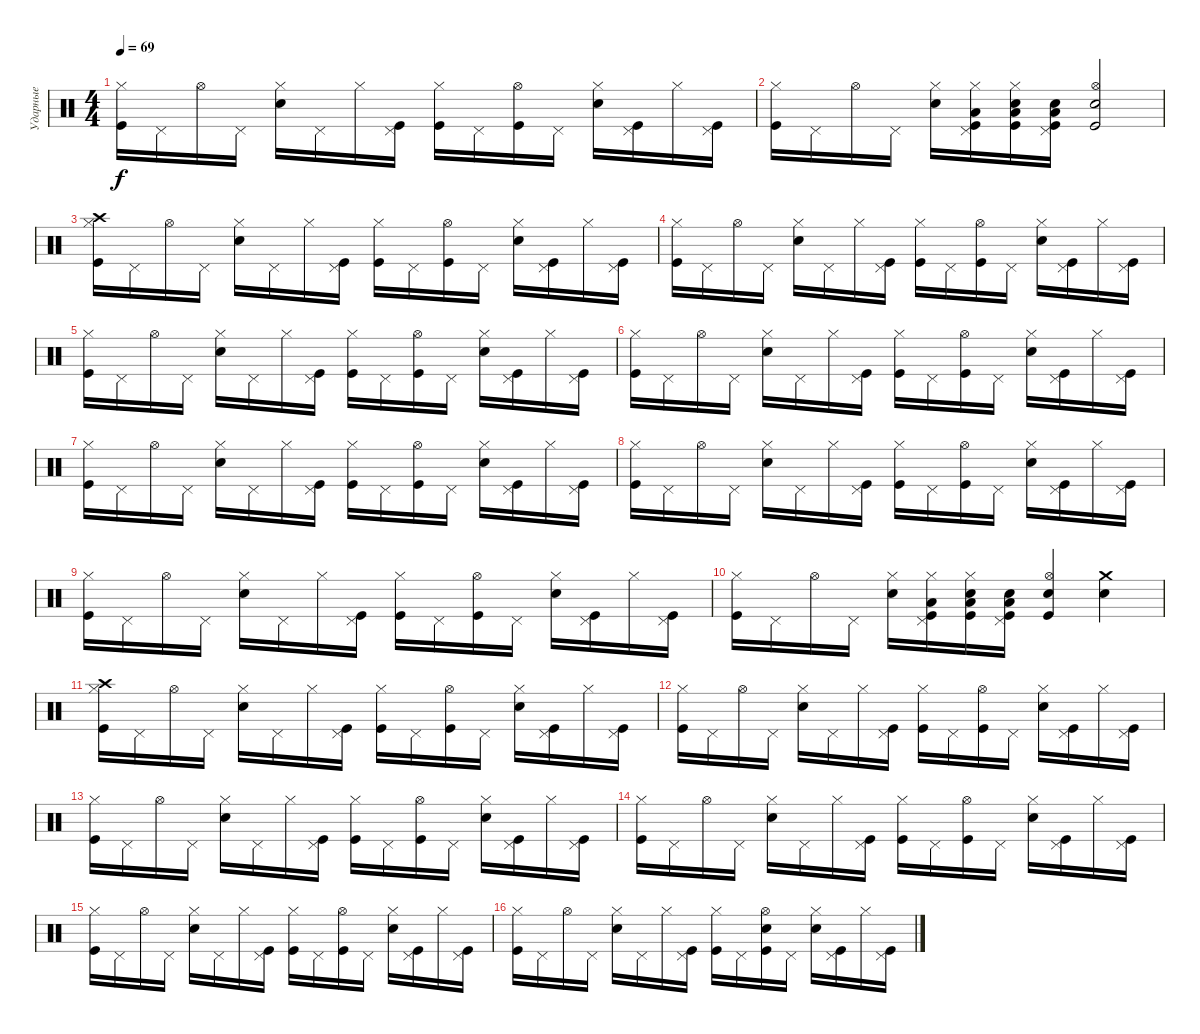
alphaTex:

\track ("Ударные" "Ударные") {instrument percussion}
\staff {score}
\articulation defaults
\ts (4 4)
\tempo 69
\clef neutral
\ks c
("Kick (hit)" "Hi-Hat (closed)").16{dy f} "Pedal Hi-Hat (hit)".16 "Hi-Hat (open)".16 "Pedal Hi-Hat (hit)".16 ("Snare (hit) 2" "Hi-Hat (closed)").16 "Pedal Hi-Hat (hit)".16 "Hi-Hat (closed)".16 ("Pedal Hi-Hat (hit)" "Kick (hit)").16 ("Kick (hit)" "Hi-Hat (closed)").16 "Pedal Hi-Hat (hit)".16 ("Kick (hit)" "Hi-Hat (open)").16 "Pedal Hi-Hat (hit)".16 ("Snare (hit) 2" "Hi-Hat (closed)").16 ("Pedal Hi-Hat (hit)" "Kick (hit)").16 "Hi-Hat (closed)".16 ("Pedal Hi-Hat (hit)" "Kick (hit)").16 |
("Kick (hit)" "Hi-Hat (closed)").16 "Pedal Hi-Hat (hit)".16 "Hi-Hat (open)".16 "Pedal Hi-Hat (hit)".16 ("Hi-Hat (closed)" "Snare (hit) 2").16 ("Hi-Hat (closed)" "Kick (hit)" "Pedal Hi-Hat (hit)" "Low Floor Tom (hit)").16 ("Hi-Hat (closed)" "Snare (hit) 2" "Low Floor Tom (hit)" "Kick (hit)").16 ("Pedal Hi-Hat (hit)" "Kick (hit)" "Snare (hit) 2" "Low Floor Tom (hit)").16 ("Hi-Hat (open)" "Snare (hit) 2" "Kick (hit)").2 |
("Kick (hit)" "Hi-Hat (closed)" "Crash high (hit)").16 "Pedal Hi-Hat (hit)".16 "Hi-Hat (open)".16 "Pedal Hi-Hat (hit)".16 ("Snare (hit) 2" "Hi-Hat (closed)").16 "Pedal Hi-Hat (hit)".16 "Hi-Hat (closed)".16 ("Pedal Hi-Hat (hit)" "Kick (hit)").16 ("Kick (hit)" "Hi-Hat (closed)").16 "Pedal Hi-Hat (hit)".16 ("Kick (hit)" "Hi-Hat (open)").16 "Pedal Hi-Hat (hit)".16 ("Snare (hit) 2" "Hi-Hat (closed)").16 ("Pedal Hi-Hat (hit)" "Kick (hit)").16 "Hi-Hat (closed)".16 ("Pedal Hi-Hat (hit)" "Kick (hit)").16 |
("Kick (hit)" "Hi-Hat (closed)").16 "Pedal Hi-Hat (hit)".16 "Hi-Hat (open)".16 "Pedal Hi-Hat (hit)".16 ("Snare (hit) 2" "Hi-Hat (closed)").16 "Pedal Hi-Hat (hit)".16 "Hi-Hat (closed)".16 ("Pedal Hi-Hat (hit)" "Kick (hit)").16 ("Kick (hit)" "Hi-Hat (closed)").16 "Pedal Hi-Hat (hit)".16 ("Kick (hit)" "Hi-Hat (open)").16 "Pedal Hi-Hat (hit)".16 ("Snare (hit) 2" "Hi-Hat (closed)").16 ("Pedal Hi-Hat (hit)" "Kick (hit)").16 "Hi-Hat (closed)".16 ("Pedal Hi-Hat (hit)" "Kick (hit)").16 |
("Kick (hit)" "Hi-Hat (closed)").16 "Pedal Hi-Hat (hit)".16 "Hi-Hat (open)".16 "Pedal Hi-Hat (hit)".16 ("Snare (hit) 2" "Hi-Hat (closed)").16 "Pedal Hi-Hat (hit)".16 "Hi-Hat (closed)".16 ("Pedal Hi-Hat (hit)" "Kick (hit)").16 ("Kick (hit)" "Hi-Hat (closed)").16 "Pedal Hi-Hat (hit)".16 ("Kick (hit)" "Hi-Hat (open)").16 "Pedal Hi-Hat (hit)".16 ("Snare (hit) 2" "Hi-Hat (closed)").16 ("Pedal Hi-Hat (hit)" "Kick (hit)").16 "Hi-Hat (closed)".16 ("Pedal Hi-Hat (hit)" "Kick (hit)").16 |
("Kick (hit)" "Hi-Hat (closed)").16 "Pedal Hi-Hat (hit)".16 "Hi-Hat (open)".16 "Pedal Hi-Hat (hit)".16 ("Snare (hit) 2" "Hi-Hat (closed)").16 "Pedal Hi-Hat (hit)".16 "Hi-Hat (closed)".16 ("Pedal Hi-Hat (hit)" "Kick (hit)").16 ("Kick (hit)" "Hi-Hat (closed)").16 "Pedal Hi-Hat (hit)".16 ("Kick (hit)" "Hi-Hat (open)").16 "Pedal Hi-Hat (hit)".16 ("Snare (hit) 2" "Hi-Hat (closed)").16 ("Pedal Hi-Hat (hit)" "Kick (hit)").16 "Hi-Hat (closed)".16 ("Pedal Hi-Hat (hit)" "Kick (hit)").16 |
("Kick (hit)" "Hi-Hat (closed)").16 "Pedal Hi-Hat (hit)".16 "Hi-Hat (open)".16 "Pedal Hi-Hat (hit)".16 ("Snare (hit) 2" "Hi-Hat (closed)").16 "Pedal Hi-Hat (hit)".16 "Hi-Hat (closed)".16 ("Pedal Hi-Hat (hit)" "Kick (hit)").16 ("Kick (hit)" "Hi-Hat (closed)").16 "Pedal Hi-Hat (hit)".16 ("Kick (hit)" "Hi-Hat (open)").16 "Pedal Hi-Hat (hit)".16 ("Snare (hit) 2" "Hi-Hat (closed)").16 ("Pedal Hi-Hat (hit)" "Kick (hit)").16 "Hi-Hat (closed)".16 ("Pedal Hi-Hat (hit)" "Kick (hit)").16 |
("Kick (hit)" "Hi-Hat (closed)").16 "Pedal Hi-Hat (hit)".16 "Hi-Hat (open)".16 "Pedal Hi-Hat (hit)".16 ("Snare (hit) 2" "Hi-Hat (closed)").16 "Pedal Hi-Hat (hit)".16 "Hi-Hat (closed)".16 ("Pedal Hi-Hat (hit)" "Kick (hit)").16 ("Kick (hit)" "Hi-Hat (closed)").16 "Pedal Hi-Hat (hit)".16 ("Kick (hit)" "Hi-Hat (open)").16 "Pedal Hi-Hat (hit)".16 ("Snare (hit) 2" "Hi-Hat (closed)").16 ("Pedal Hi-Hat (hit)" "Kick (hit)").16 "Hi-Hat (closed)".16 ("Pedal Hi-Hat (hit)" "Kick (hit)").16 |
("Kick (hit)" "Hi-Hat (closed)").16 "Pedal Hi-Hat (hit)".16 "Hi-Hat (open)".16 "Pedal Hi-Hat (hit)".16 ("Snare (hit) 2" "Hi-Hat (closed)").16 "Pedal Hi-Hat (hit)".16 "Hi-Hat (closed)".16 ("Pedal Hi-Hat (hit)" "Kick (hit)").16 ("Kick (hit)" "Hi-Hat (closed)").16 "Pedal Hi-Hat (hit)".16 ("Kick (hit)" "Hi-Hat (open)").16 "Pedal Hi-Hat (hit)".16 ("Snare (hit) 2" "Hi-Hat (closed)").16 ("Pedal Hi-Hat (hit)" "Kick (hit)").16 "Hi-Hat (closed)".16 ("Pedal Hi-Hat (hit)" "Kick (hit)").16 |
("Kick (hit)" "Hi-Hat (closed)").16 "Pedal Hi-Hat (hit)".16 "Hi-Hat (open)".16 "Pedal Hi-Hat (hit)".16 ("Hi-Hat (closed)" "Snare (hit) 2").16 ("Hi-Hat (closed)" "Kick (hit)" "Pedal Hi-Hat (hit)" "Low Floor Tom (hit)").16 ("Hi-Hat (closed)" "Snare (hit) 2" "Low Floor Tom (hit)" "Kick (hit)").16 ("Pedal Hi-Hat (hit)" "Kick (hit)" "Snare (hit) 2" "Low Floor Tom (hit)").16 ("Hi-Hat (open)" "Snare (hit) 2" "Kick (hit)").4 ("Snare (hit) 2" "Crash medium (hit)").4 |
("Kick (hit)" "Hi-Hat (closed)" "Crash high (hit)").16 "Pedal Hi-Hat (hit)".16 "Hi-Hat (open)".16 "Pedal Hi-Hat (hit)".16 ("Snare (hit) 2" "Hi-Hat (closed)").16 "Pedal Hi-Hat (hit)".16 "Hi-Hat (closed)".16 ("Pedal Hi-Hat (hit)" "Kick (hit)").16 ("Kick (hit)" "Hi-Hat (closed)").16 "Pedal Hi-Hat (hit)".16 ("Kick (hit)" "Hi-Hat (open)").16 "Pedal Hi-Hat (hit)".16 ("Snare (hit) 2" "Hi-Hat (closed)").16 ("Pedal Hi-Hat (hit)" "Kick (hit)").16 "Hi-Hat (closed)".16 ("Pedal Hi-Hat (hit)" "Kick (hit)").16 |
("Kick (hit)" "Hi-Hat (closed)").16 "Pedal Hi-Hat (hit)".16 "Hi-Hat (open)".16 "Pedal Hi-Hat (hit)".16 ("Snare (hit) 2" "Hi-Hat (closed)").16 "Pedal Hi-Hat (hit)".16 "Hi-Hat (closed)".16 ("Pedal Hi-Hat (hit)" "Kick (hit)").16 ("Kick (hit)" "Hi-Hat (closed)").16 "Pedal Hi-Hat (hit)".16 ("Kick (hit)" "Hi-Hat (open)").16 "Pedal Hi-Hat (hit)".16 ("Snare (hit) 2" "Hi-Hat (closed)").16 ("Pedal Hi-Hat (hit)" "Kick (hit)").16 "Hi-Hat (closed)".16 ("Pedal Hi-Hat (hit)" "Kick (hit)").16 |
("Kick (hit)" "Hi-Hat (closed)").16 "Pedal Hi-Hat (hit)".16 "Hi-Hat (open)".16 "Pedal Hi-Hat (hit)".16 ("Snare (hit) 2" "Hi-Hat (closed)").16 "Pedal Hi-Hat (hit)".16 "Hi-Hat (closed)".16 ("Pedal Hi-Hat (hit)" "Kick (hit)").16 ("Kick (hit)" "Hi-Hat (closed)").16 "Pedal Hi-Hat (hit)".16 ("Kick (hit)" "Hi-Hat (open)").16 "Pedal Hi-Hat (hit)".16 ("Snare (hit) 2" "Hi-Hat (closed)").16 ("Pedal Hi-Hat (hit)" "Kick (hit)").16 "Hi-Hat (closed)".16 ("Pedal Hi-Hat (hit)" "Kick (hit)").16 |
("Kick (hit)" "Hi-Hat (closed)").16 "Pedal Hi-Hat (hit)".16 "Hi-Hat (open)".16 "Pedal Hi-Hat (hit)".16 ("Snare (hit) 2" "Hi-Hat (closed)").16 "Pedal Hi-Hat (hit)".16 "Hi-Hat (closed)".16 ("Pedal Hi-Hat (hit)" "Kick (hit)").16 ("Kick (hit)" "Hi-Hat (closed)").16 "Pedal Hi-Hat (hit)".16 ("Kick (hit)" "Hi-Hat (open)").16 "Pedal Hi-Hat (hit)".16 ("Snare (hit) 2" "Hi-Hat (closed)").16 ("Pedal Hi-Hat (hit)" "Kick (hit)").16 "Hi-Hat (closed)".16 ("Pedal Hi-Hat (hit)" "Kick (hit)").16 |
("Kick (hit)" "Hi-Hat (closed)").16 "Pedal Hi-Hat (hit)".16 "Hi-Hat (open)".16 "Pedal Hi-Hat (hit)".16 ("Snare (hit) 2" "Hi-Hat (closed)").16 "Pedal Hi-Hat (hit)".16 "Hi-Hat (closed)".16 ("Pedal Hi-Hat (hit)" "Kick (hit)").16 ("Kick (hit)" "Hi-Hat (closed)").16 "Pedal Hi-Hat (hit)".16 ("Kick (hit)" "Hi-Hat (open)").16 "Pedal Hi-Hat (hit)".16 ("Snare (hit) 2" "Hi-Hat (closed)").16 ("Pedal Hi-Hat (hit)" "Kick (hit)").16 "Hi-Hat (closed)".16 ("Pedal Hi-Hat (hit)" "Kick (hit)").16 |
("Kick (hit)" "Hi-Hat (closed)").16 "Pedal Hi-Hat (hit)".16 "Hi-Hat (open)".16 "Pedal Hi-Hat (hit)".16 ("Snare (hit) 2" "Hi-Hat (closed)").16 "Pedal Hi-Hat (hit)".16 "Hi-Hat (closed)".16 ("Pedal Hi-Hat (hit)" "Kick (hit)").16 ("Kick (hit)" "Hi-Hat (closed)").16 "Pedal Hi-Hat (hit)".16 ("Kick (hit)" "Hi-Hat (open)" "Snare (hit) 2").16 "Pedal Hi-Hat (hit)".16 ("Snare (hit) 2" "Hi-Hat (closed)").16 ("Pedal Hi-Hat (hit)" "Kick (hit)").16 "Hi-Hat (closed)".16 ("Pedal Hi-Hat (hit)" "Kick (hit)").16
